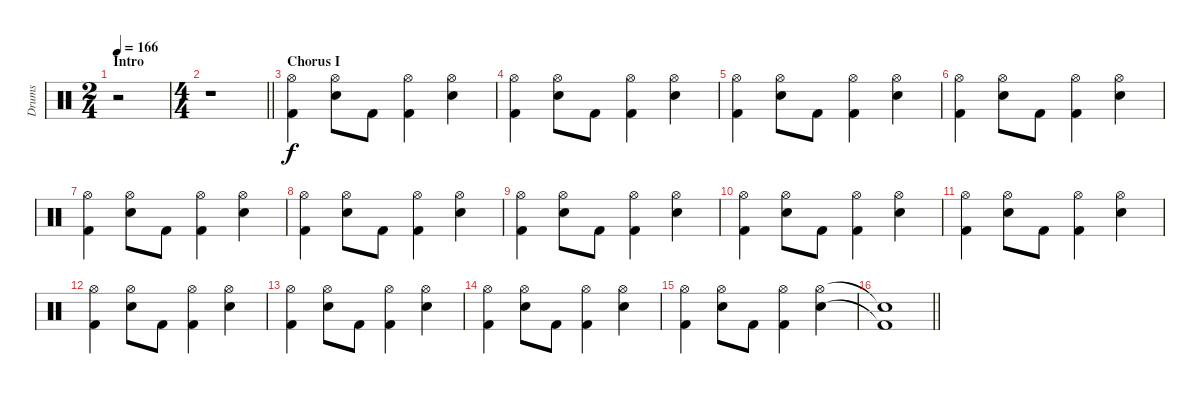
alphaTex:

\track ("Drums" "Drums") {instrument percussion}
\staff {score}
\articulation defaults
\ts (2 4)
\section ("" "Intro")
\tempo 166
\clef neutral
\ks c
r.2{dy f} |
\ts (4 4)
\barLineRight lightlight
r.1 |
\section ("" "Chorus I")
("Hi-Hat (open)" "Kick (hit) 2").4 ("Hi-Hat (open)" "Snare (hit) 2").8 "Kick (hit) 2".8 ("Hi-Hat (open)" "Kick (hit) 2").4 ("Hi-Hat (open)" "Snare (hit) 2").4 |
("Hi-Hat (open)" "Kick (hit) 2").4 ("Hi-Hat (open)" "Snare (hit) 2").8 "Kick (hit) 2".8 ("Hi-Hat (open)" "Kick (hit) 2").4 ("Hi-Hat (open)" "Snare (hit) 2").4 |
("Hi-Hat (open)" "Kick (hit) 2").4 ("Hi-Hat (open)" "Snare (hit) 2").8 "Kick (hit) 2".8 ("Hi-Hat (open)" "Kick (hit) 2").4 ("Hi-Hat (open)" "Snare (hit) 2").4 |
("Hi-Hat (open)" "Kick (hit) 2").4 ("Hi-Hat (open)" "Snare (hit) 2").8 "Kick (hit) 2".8 ("Hi-Hat (open)" "Kick (hit) 2").4 ("Hi-Hat (open)" "Snare (hit) 2").4 |
("Hi-Hat (open)" "Kick (hit) 2").4 ("Hi-Hat (open)" "Snare (hit) 2").8 "Kick (hit) 2".8 ("Hi-Hat (open)" "Kick (hit) 2").4 ("Hi-Hat (open)" "Snare (hit) 2").4 |
("Hi-Hat (open)" "Kick (hit) 2").4 ("Hi-Hat (open)" "Snare (hit) 2").8 "Kick (hit) 2".8 ("Hi-Hat (open)" "Kick (hit) 2").4 ("Hi-Hat (open)" "Snare (hit) 2").4 |
("Hi-Hat (open)" "Kick (hit) 2").4 ("Hi-Hat (open)" "Snare (hit) 2").8 "Kick (hit) 2".8 ("Hi-Hat (open)" "Kick (hit) 2").4 ("Hi-Hat (open)" "Snare (hit) 2").4 |
("Hi-Hat (open)" "Kick (hit) 2").4 ("Hi-Hat (open)" "Snare (hit) 2").8 "Kick (hit) 2".8 ("Hi-Hat (open)" "Kick (hit) 2").4 ("Hi-Hat (open)" "Snare (hit) 2").4 |
("Hi-Hat (open)" "Kick (hit) 2").4 ("Hi-Hat (open)" "Snare (hit) 2").8 "Kick (hit) 2".8 ("Hi-Hat (open)" "Kick (hit) 2").4 ("Hi-Hat (open)" "Snare (hit) 2").4 |
("Hi-Hat (open)" "Kick (hit) 2").4 ("Hi-Hat (open)" "Snare (hit) 2").8 "Kick (hit) 2".8 ("Hi-Hat (open)" "Kick (hit) 2").4 ("Hi-Hat (open)" "Snare (hit) 2").4 |
("Hi-Hat (open)" "Kick (hit) 2").4 ("Hi-Hat (open)" "Snare (hit) 2").8 "Kick (hit) 2".8 ("Hi-Hat (open)" "Kick (hit) 2").4 ("Hi-Hat (open)" "Snare (hit) 2").4 |
("Hi-Hat (open)" "Kick (hit) 2").4 ("Hi-Hat (open)" "Snare (hit) 2").8 "Kick (hit) 2".8 ("Hi-Hat (open)" "Kick (hit) 2").4 ("Hi-Hat (open)" "Snare (hit) 2").4 |
("Hi-Hat (open)" "Kick (hit) 2").4 ("Hi-Hat (open)" "Snare (hit) 2").8 "Kick (hit) 2".8 ("Hi-Hat (open)" "Kick (hit) 2").4 ("Hi-Hat (open)" "Snare (hit) 2").4 |
\barLineRight lightlight
("Snare (hit)"{t} "Kick (hit) 2"{t}).1
